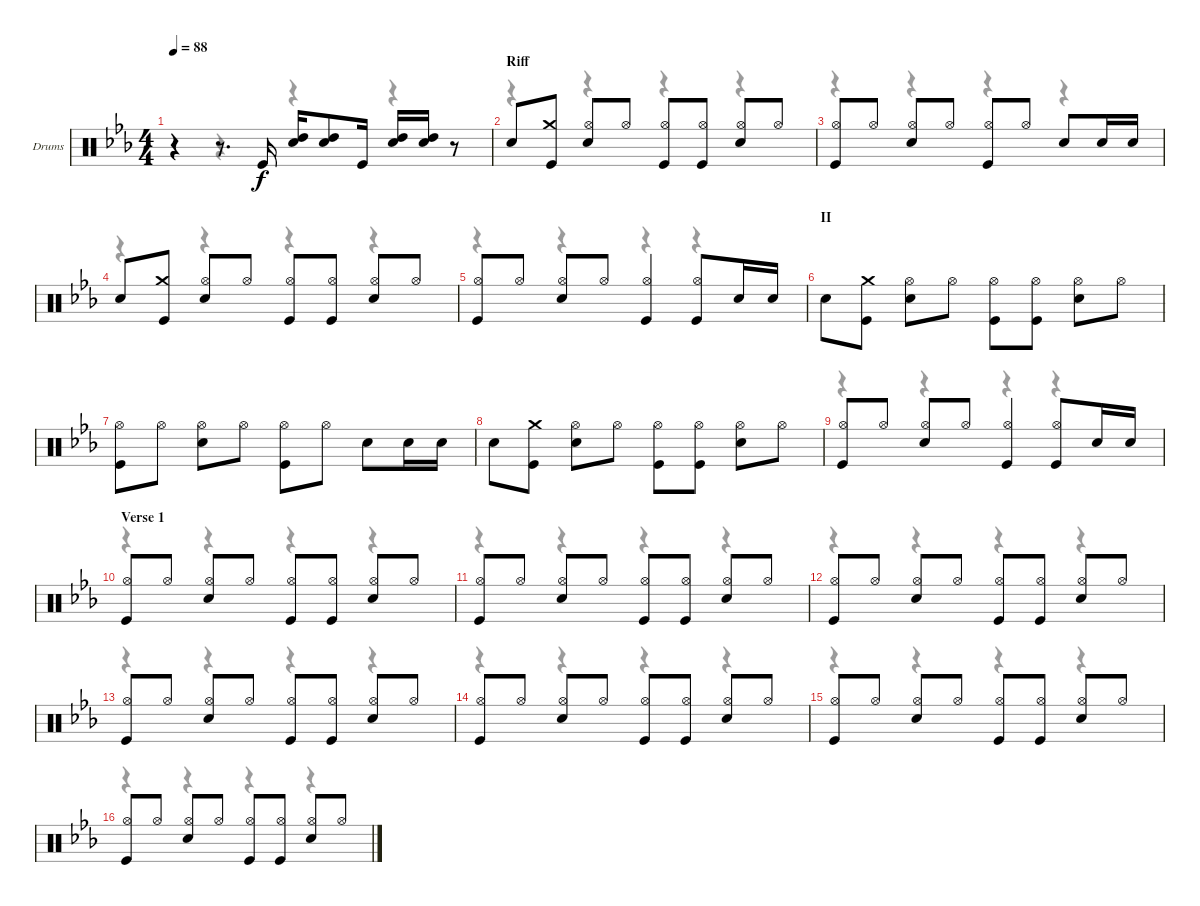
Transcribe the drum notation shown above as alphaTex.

\bracketExtendMode groupsimilarinstruments
\firstSystemTrackNameOrientation horizontal
\otherSystemsTrackNameOrientation horizontal
\track ("Ian Paice - Drums" "Drums") {instrument percussion}
\staff {score}
\articulation defaults
\voice
\ts (4 4)
\beaming (8 2 2 2 2)
\tempo 88
\clef neutral
\ks cminor
r.4{dy f} r.8{d} "Kick (hit)".16 ("High Tom (hit)" "Snare (hit) 2").16 ("High Tom (hit)" "Snare (hit) 2").8 "Kick (hit)".16 ("High Tom (hit)" "Snare (hit) 2").16 ("High Tom (hit)" "Snare (hit) 2").16 r.8 |
\section ("" "Riff")
"Snare (hit) 2".8 ("Crash medium (hit)" "Kick (hit)").8 ("Hi-Hat (open)" "Snare (hit) 2").8 "Hi-Hat (open)".8 ("Hi-Hat (open)" "Kick (hit)").8 ("Hi-Hat (open)" "Kick (hit)").8 ("Hi-Hat (open)" "Snare (hit) 2").8 "Hi-Hat (open)".8 |
("Hi-Hat (open)" "Kick (hit)").8 "Hi-Hat (open)".8 ("Hi-Hat (open)" "Snare (hit) 2").8 "Hi-Hat (open)".8 ("Hi-Hat (open)" "Kick (hit)").8 "Hi-Hat (open)".8 "Snare (hit) 2".8 "Snare (hit) 2".16 "Snare (hit) 2".16 |
"Snare (hit) 2".8 ("Crash medium (hit)" "Kick (hit)").8 ("Hi-Hat (open)" "Snare (hit) 2").8 "Hi-Hat (open)".8 ("Hi-Hat (open)" "Kick (hit)").8 ("Hi-Hat (open)" "Kick (hit)").8 ("Hi-Hat (open)" "Snare (hit) 2").8 "Hi-Hat (open)".8 |
("Hi-Hat (open)" "Kick (hit)").8 "Hi-Hat (open)".8 ("Hi-Hat (open)" "Snare (hit) 2").8 "Hi-Hat (open)".8 ("Hi-Hat (open)" "Kick (hit)").4 ("Hi-Hat (open)" "Kick (hit)").8 "Snare (hit) 2".16 "Snare (hit) 2".16 |
\section ("" "II")
"Snare (hit) 2".8 ("Crash medium (hit)" "Kick (hit)").8 ("Hi-Hat (open)" "Snare (hit) 2").8 "Hi-Hat (open)".8 ("Hi-Hat (open)" "Kick (hit)").8 ("Hi-Hat (open)" "Kick (hit)").8 ("Hi-Hat (open)" "Snare (hit) 2").8 "Hi-Hat (open)".8 |
("Hi-Hat (open)" "Kick (hit)").8 "Hi-Hat (open)".8 ("Hi-Hat (open)" "Snare (hit) 2").8 "Hi-Hat (open)".8 ("Hi-Hat (open)" "Kick (hit)").8 "Hi-Hat (open)".8 "Snare (hit) 2".8 "Snare (hit) 2".16 "Snare (hit) 2".16 |
"Snare (hit) 2".8 ("Crash medium (hit)" "Kick (hit)").8 ("Hi-Hat (open)" "Snare (hit) 2").8 "Hi-Hat (open)".8 ("Hi-Hat (open)" "Kick (hit)").8 ("Hi-Hat (open)" "Kick (hit)").8 ("Hi-Hat (open)" "Snare (hit) 2").8 "Hi-Hat (open)".8 |
("Hi-Hat (open)" "Kick (hit)").8 "Hi-Hat (open)".8 ("Hi-Hat (open)" "Snare (hit) 2").8 "Hi-Hat (open)".8 ("Hi-Hat (open)" "Kick (hit)").4 ("Hi-Hat (open)" "Kick (hit)").8 "Snare (hit) 2".16 "Snare (hit) 2".16 |
\section ("" "Verse 1")
("Hi-Hat (open)" "Kick (hit)").8 "Hi-Hat (open)".8 ("Hi-Hat (open)" "Snare (hit) 2").8 "Hi-Hat (open)".8 ("Hi-Hat (open)" "Kick (hit)").8 ("Hi-Hat (open)" "Kick (hit)").8 ("Hi-Hat (open)" "Snare (hit) 2").8 "Hi-Hat (open)".8 |
("Hi-Hat (open)" "Kick (hit)").8 "Hi-Hat (open)".8 ("Hi-Hat (open)" "Snare (hit) 2").8 "Hi-Hat (open)".8 ("Hi-Hat (open)" "Kick (hit)").8 ("Hi-Hat (open)" "Kick (hit)").8 ("Hi-Hat (open)" "Snare (hit) 2").8 "Hi-Hat (open)".8 |
("Hi-Hat (open)" "Kick (hit)").8 "Hi-Hat (open)".8 ("Hi-Hat (open)" "Snare (hit) 2").8 "Hi-Hat (open)".8 ("Hi-Hat (open)" "Kick (hit)").8 ("Hi-Hat (open)" "Kick (hit)").8 ("Hi-Hat (open)" "Snare (hit) 2").8 "Hi-Hat (open)".8 |
("Hi-Hat (open)" "Kick (hit)").8 "Hi-Hat (open)".8 ("Hi-Hat (open)" "Snare (hit) 2").8 "Hi-Hat (open)".8 ("Hi-Hat (open)" "Kick (hit)").8 ("Hi-Hat (open)" "Kick (hit)").8 ("Hi-Hat (open)" "Snare (hit) 2").8 "Hi-Hat (open)".8 |
("Hi-Hat (open)" "Kick (hit)").8 "Hi-Hat (open)".8 ("Hi-Hat (open)" "Snare (hit) 2").8 "Hi-Hat (open)".8 ("Hi-Hat (open)" "Kick (hit)").8 ("Hi-Hat (open)" "Kick (hit)").8 ("Hi-Hat (open)" "Snare (hit) 2").8 "Hi-Hat (open)".8 |
("Hi-Hat (open)" "Kick (hit)").8 "Hi-Hat (open)".8 ("Hi-Hat (open)" "Snare (hit) 2").8 "Hi-Hat (open)".8 ("Hi-Hat (open)" "Kick (hit)").8 ("Hi-Hat (open)" "Kick (hit)").8 ("Hi-Hat (open)" "Snare (hit) 2").8 "Hi-Hat (open)".8 |
("Hi-Hat (open)" "Kick (hit)").8 "Hi-Hat (open)".8 ("Hi-Hat (open)" "Snare (hit) 2").8 "Hi-Hat (open)".8 ("Hi-Hat (open)" "Kick (hit)").8 ("Hi-Hat (open)" "Kick (hit)").8 ("Hi-Hat (open)" "Snare (hit) 2").8 "Hi-Hat (open)".8
\voice
\clef neutral
\ottava regular
\simile none
\ks cminor
r.4{dy mf} r.4 r.4 r.4 |
r.4 r.4 r.4 r.4 |
r.4 r.4 r.4 r.4 |
r.4 r.4 r.4 r.4 |
r.4 r.4 r.4 r.4 |
|
|
|
r.4{dy mf} r.4 r.4 r.4 |
r.4 r.4 r.4 r.4 |
r.4 r.4 r.4 r.4 |
r.4 r.4 r.4 r.4 |
r.4 r.4 r.4 r.4 |
r.4 r.4 r.4 r.4 |
r.4 r.4 r.4 r.4 |
r.4 r.4 r.4 r.4
